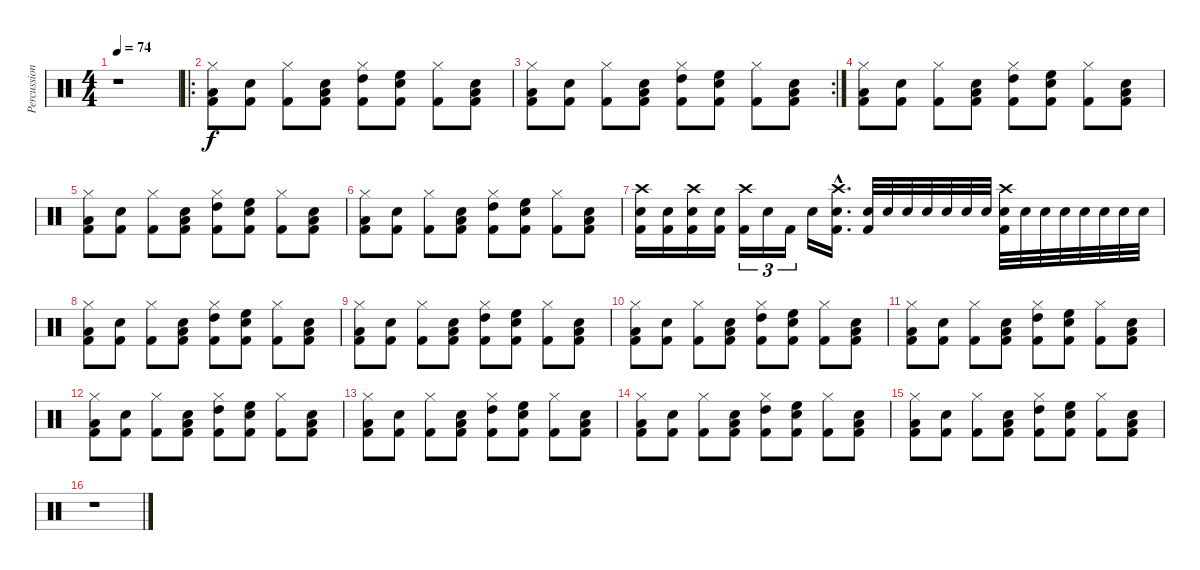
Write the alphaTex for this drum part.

\track ("Percussion" "Percussion") {instrument percussion}
\staff {score}
\articulation defaults
\ts (4 4)
\tempo 74
\clef neutral
\ks c
r.1{dy f} |
\ro
("Hi-Hat (closed)" "Low Tom (hit)" "Kick (hit) 2").8 ("Snare (hit) 2" "Kick (hit) 2").8 ("Hi-Hat (closed)" "Kick (hit) 2").8 ("Snare (hit) 2" "Low Tom (hit)" "Kick (hit) 2").8 ("Hi-Hat (closed)" "High Tom (hit)" "Kick (hit) 2").8 ("Snare (hit) 2" "High Floor Tom (hit)" "Kick (hit) 2").8 ("Hi-Hat (closed)" "Kick (hit) 2").8 ("Snare (hit) 2" "Low Tom (hit)" "Kick (hit) 2").8 |
\rc 2
("Hi-Hat (closed)" "Low Tom (hit)" "Kick (hit) 2").8 ("Snare (hit) 2" "Kick (hit) 2").8 ("Hi-Hat (closed)" "Kick (hit) 2").8 ("Snare (hit) 2" "Low Tom (hit)" "Kick (hit) 2").8 ("Hi-Hat (closed)" "High Tom (hit)" "Kick (hit) 2").8 ("Snare (hit) 2" "High Floor Tom (hit)" "Kick (hit) 2").8 ("Hi-Hat (closed)" "Kick (hit) 2").8 ("Snare (hit) 2" "Low Tom (hit)" "Kick (hit) 2").8 |
("Hi-Hat (closed)" "Low Tom (hit)" "Kick (hit) 2").8 ("Snare (hit) 2" "Kick (hit) 2").8 ("Hi-Hat (closed)" "Kick (hit) 2").8 ("Snare (hit) 2" "Low Tom (hit)" "Kick (hit) 2").8 ("Hi-Hat (closed)" "High Tom (hit)" "Kick (hit) 2").8 ("Snare (hit) 2" "High Floor Tom (hit)" "Kick (hit) 2").8 ("Hi-Hat (closed)" "Kick (hit) 2").8 ("Snare (hit) 2" "Low Tom (hit)" "Kick (hit) 2").8 |
("Hi-Hat (closed)" "Low Tom (hit)" "Kick (hit) 2").8 ("Snare (hit) 2" "Kick (hit) 2").8 ("Hi-Hat (closed)" "Kick (hit) 2").8 ("Snare (hit) 2" "Low Tom (hit)" "Kick (hit) 2").8 ("Hi-Hat (closed)" "High Tom (hit)" "Kick (hit) 2").8 ("Snare (hit) 2" "High Floor Tom (hit)" "Kick (hit) 2").8 ("Hi-Hat (closed)" "Kick (hit) 2").8 ("Snare (hit) 2" "Low Tom (hit)" "Kick (hit) 2").8 |
("Hi-Hat (closed)" "Low Tom (hit)" "Kick (hit) 2").8 ("Snare (hit) 2" "Kick (hit) 2").8 ("Hi-Hat (closed)" "Kick (hit) 2").8 ("Snare (hit) 2" "Low Tom (hit)" "Kick (hit) 2").8 ("Hi-Hat (closed)" "High Tom (hit)" "Kick (hit) 2").8 ("Snare (hit) 2" "High Floor Tom (hit)" "Kick (hit) 2").8 ("Hi-Hat (closed)" "Kick (hit) 2").8 ("Snare (hit) 2" "Low Tom (hit)" "Kick (hit) 2").8 |
("Crash high (hit)" "Snare (hit) 2" "Kick (hit) 2").16 ("Snare (hit) 2" "Kick (hit) 2").16 ("Crash high (hit)" "Snare (hit) 2" "Kick (hit) 2").16 ("Snare (hit) 2" "Kick (hit) 2").16 ("Crash high (hit)" "Kick (hit) 2").16{tu (3 2)} "Snare (hit) 2".16{tu (3 2)} "Kick (hit) 2".16{tu (3 2)} "Snare (hit) 2".16 ("Crash high (hit)"{hac} "Snare (hit) 2"{hac} "Kick (hit) 2"{hac}).16{d} ("Snare (hit) 2" "Kick (hit) 2").32 "Snare (hit) 2".32 "Snare (hit) 2".32 "Snare (hit) 2".32 "Snare (hit) 2".32 "Snare (hit) 2".32 "Snare (hit) 2".32 ("Crash high (hit)" "Snare (hit) 2" "Kick (hit) 2").32 "Snare (hit) 2".32 "Snare (hit) 2".32 "Snare (hit) 2".32 "Snare (hit) 2".32 "Snare (hit) 2".32 "Snare (hit) 2".32 "Snare (hit) 2".32 |
("Hi-Hat (closed)" "Low Tom (hit)" "Kick (hit) 2").8 ("Snare (hit) 2" "Kick (hit) 2").8 ("Hi-Hat (closed)" "Kick (hit) 2").8 ("Snare (hit) 2" "Low Tom (hit)" "Kick (hit) 2").8 ("Hi-Hat (closed)" "High Tom (hit)" "Kick (hit) 2").8 ("Snare (hit) 2" "High Floor Tom (hit)" "Kick (hit) 2").8 ("Hi-Hat (closed)" "Kick (hit) 2").8 ("Snare (hit) 2" "Low Tom (hit)" "Kick (hit) 2").8 |
("Hi-Hat (closed)" "Low Tom (hit)" "Kick (hit) 2").8 ("Snare (hit) 2" "Kick (hit) 2").8 ("Hi-Hat (closed)" "Kick (hit) 2").8 ("Snare (hit) 2" "Low Tom (hit)" "Kick (hit) 2").8 ("Hi-Hat (closed)" "High Tom (hit)" "Kick (hit) 2").8 ("Snare (hit) 2" "High Floor Tom (hit)" "Kick (hit) 2").8 ("Hi-Hat (closed)" "Kick (hit) 2").8 ("Snare (hit) 2" "Low Tom (hit)" "Kick (hit) 2").8 |
("Hi-Hat (closed)" "Low Tom (hit)" "Kick (hit) 2").8 ("Snare (hit) 2" "Kick (hit) 2").8 ("Hi-Hat (closed)" "Kick (hit) 2").8 ("Snare (hit) 2" "Low Tom (hit)" "Kick (hit) 2").8 ("Hi-Hat (closed)" "High Tom (hit)" "Kick (hit) 2").8 ("Snare (hit) 2" "High Floor Tom (hit)" "Kick (hit) 2").8 ("Hi-Hat (closed)" "Kick (hit) 2").8 ("Snare (hit) 2" "Low Tom (hit)" "Kick (hit) 2").8 |
("Hi-Hat (closed)" "Low Tom (hit)" "Kick (hit) 2").8 ("Snare (hit) 2" "Kick (hit) 2").8 ("Hi-Hat (closed)" "Kick (hit) 2").8 ("Snare (hit) 2" "Low Tom (hit)" "Kick (hit) 2").8 ("Hi-Hat (closed)" "High Tom (hit)" "Kick (hit) 2").8 ("Snare (hit) 2" "High Floor Tom (hit)" "Kick (hit) 2").8 ("Hi-Hat (closed)" "Kick (hit) 2").8 ("Snare (hit) 2" "Low Tom (hit)" "Kick (hit) 2").8 |
("Hi-Hat (closed)" "Low Tom (hit)" "Kick (hit) 2").8 ("Snare (hit) 2" "Kick (hit) 2").8 ("Hi-Hat (closed)" "Kick (hit) 2").8 ("Snare (hit) 2" "Low Tom (hit)" "Kick (hit) 2").8 ("Hi-Hat (closed)" "High Tom (hit)" "Kick (hit) 2").8 ("Snare (hit) 2" "High Floor Tom (hit)" "Kick (hit) 2").8 ("Hi-Hat (closed)" "Kick (hit) 2").8 ("Snare (hit) 2" "Low Tom (hit)" "Kick (hit) 2").8 |
("Hi-Hat (closed)" "Low Tom (hit)" "Kick (hit) 2").8 ("Snare (hit) 2" "Kick (hit) 2").8 ("Hi-Hat (closed)" "Kick (hit) 2").8 ("Snare (hit) 2" "Low Tom (hit)" "Kick (hit) 2").8 ("Hi-Hat (closed)" "High Tom (hit)" "Kick (hit) 2").8 ("Snare (hit) 2" "High Floor Tom (hit)" "Kick (hit) 2").8 ("Hi-Hat (closed)" "Kick (hit) 2").8 ("Snare (hit) 2" "Low Tom (hit)" "Kick (hit) 2").8 |
("Hi-Hat (closed)" "Low Tom (hit)" "Kick (hit) 2").8 ("Snare (hit) 2" "Kick (hit) 2").8 ("Hi-Hat (closed)" "Kick (hit) 2").8 ("Snare (hit) 2" "Low Tom (hit)" "Kick (hit) 2").8 ("Hi-Hat (closed)" "High Tom (hit)" "Kick (hit) 2").8 ("Snare (hit) 2" "High Floor Tom (hit)" "Kick (hit) 2").8 ("Hi-Hat (closed)" "Kick (hit) 2").8 ("Snare (hit) 2" "Low Tom (hit)" "Kick (hit) 2").8 |
("Hi-Hat (closed)" "Low Tom (hit)" "Kick (hit) 2").8 ("Snare (hit) 2" "Kick (hit) 2").8 ("Hi-Hat (closed)" "Kick (hit) 2").8 ("Snare (hit) 2" "Low Tom (hit)" "Kick (hit) 2").8 ("Hi-Hat (closed)" "High Tom (hit)" "Kick (hit) 2").8 ("Snare (hit) 2" "High Floor Tom (hit)" "Kick (hit) 2").8 ("Hi-Hat (closed)" "Kick (hit) 2").8 ("Snare (hit) 2" "Low Tom (hit)" "Kick (hit) 2").8 |
r.1
